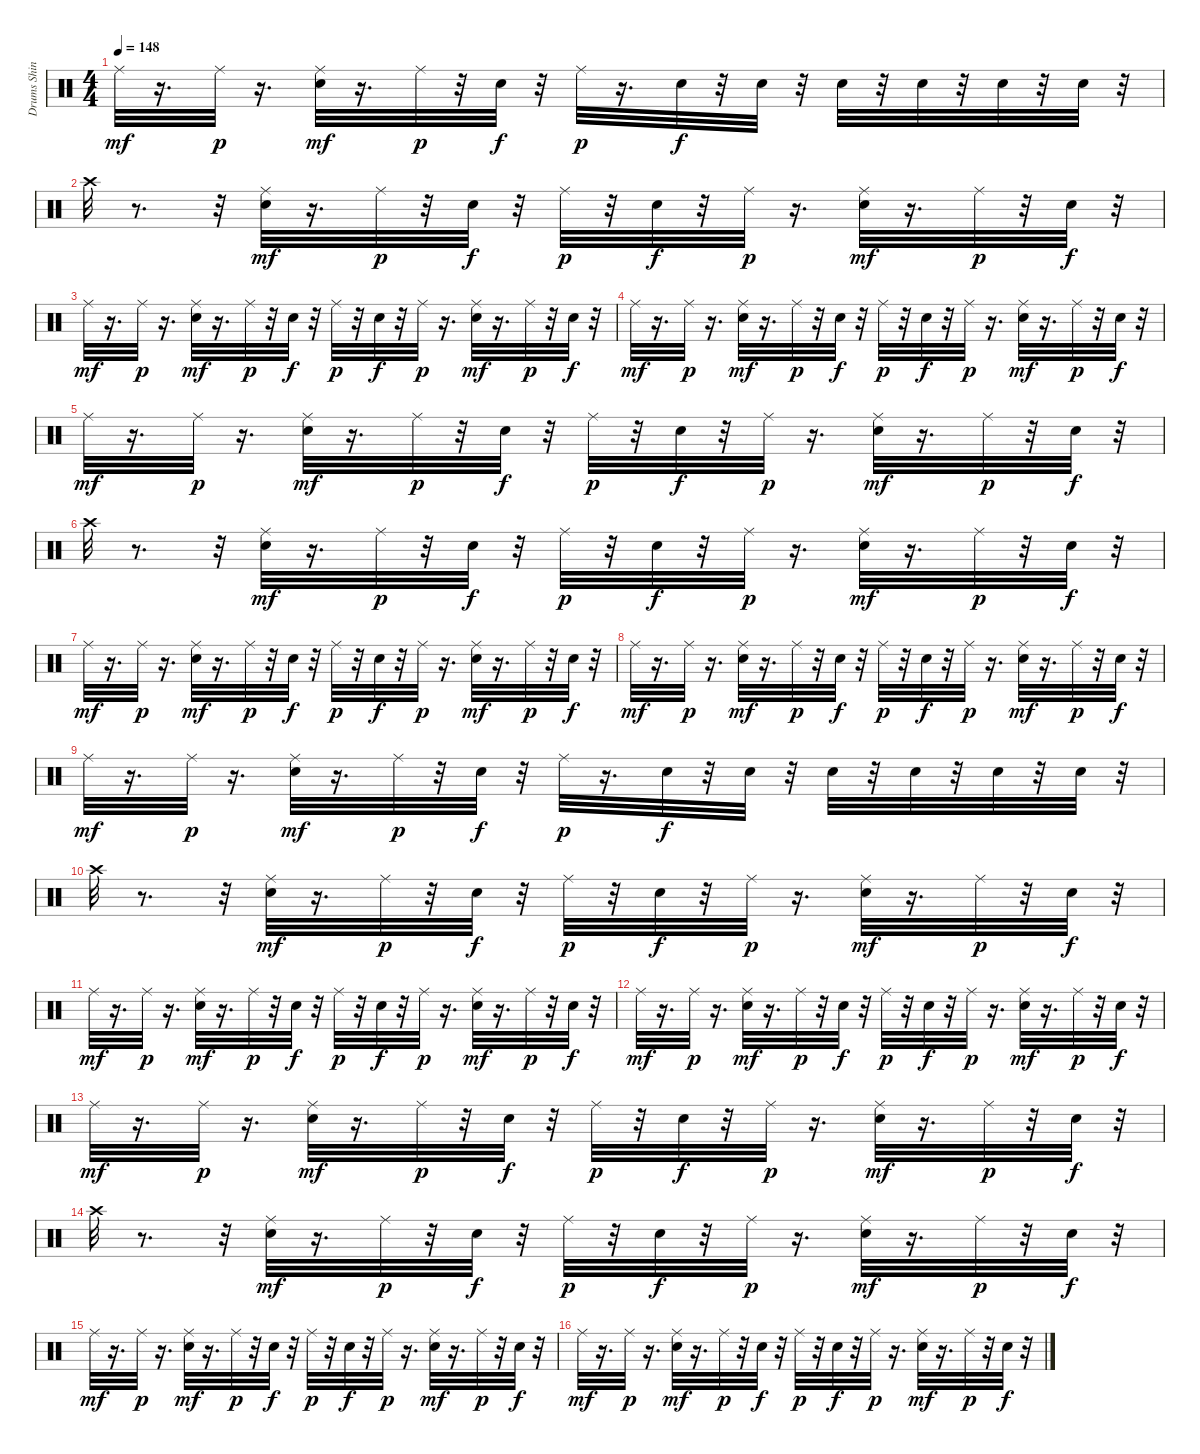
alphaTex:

\track ("Drums Shinya         " "Drums Shin") {instrument percussion}
\staff {score}
\articulation defaults
\ts (4 4)
\tempo 148
\clef neutral
\ks c "Ride (middle)".32{dy mf}
r.16{d} "Ride (middle)".32{dy p} r.16{d} ("Electric Snare (hit)" "Ride (middle)").32{dy mf} r.16{d} "Ride (middle)".32{dy p} r.32 "Electric Snare (hit)".32{dy f} r.32 "Ride (middle)".32{dy p} r.16{d} "Electric Snare (hit)".32{dy f} r.32 "Electric Snare (hit)".32 r.32 "Electric Snare (hit)".32 r.32 "Electric Snare (hit)".32 r.32 "Electric Snare (hit)".32 r.32 "Electric Snare (hit)".32 r.32 |
"Crash high (hit)".32 r.8{d} r.32 ("Electric Snare (hit)" "Ride (middle)").32{dy mf} r.16{d} "Ride (middle)".32{dy p} r.32 "Electric Snare (hit)".32{dy f} r.32 "Ride (middle)".32{dy p} r.32 "Electric Snare (hit)".32{dy f} r.32 "Ride (middle)".32{dy p} r.16{d} ("Electric Snare (hit)" "Ride (middle)").32{dy mf} r.16{d} "Ride (middle)".32{dy p} r.32 "Electric Snare (hit)".32{dy f} r.32 |
"Ride (middle)".32{dy mf} r.16{d} "Ride (middle)".32{dy p} r.16{d} ("Electric Snare (hit)" "Ride (middle)").32{dy mf} r.16{d} "Ride (middle)".32{dy p} r.32 "Electric Snare (hit)".32{dy f} r.32 "Ride (middle)".32{dy p} r.32 "Electric Snare (hit)".32{dy f} r.32 "Ride (middle)".32{dy p} r.16{d} ("Electric Snare (hit)" "Ride (middle)").32{dy mf} r.16{d} "Ride (middle)".32{dy p} r.32 "Electric Snare (hit)".32{dy f} r.32 |
"Ride (middle)".32{dy mf} r.16{d} "Ride (middle)".32{dy p} r.16{d} ("Electric Snare (hit)" "Ride (middle)").32{dy mf} r.16{d} "Ride (middle)".32{dy p} r.32 "Electric Snare (hit)".32{dy f} r.32 "Ride (middle)".32{dy p} r.32 "Electric Snare (hit)".32{dy f} r.32 "Ride (middle)".32{dy p} r.16{d} ("Electric Snare (hit)" "Ride (middle)").32{dy mf} r.16{d} "Ride (middle)".32{dy p} r.32 "Electric Snare (hit)".32{dy f} r.32 |
"Ride (middle)".32{dy mf} r.16{d} "Ride (middle)".32{dy p} r.16{d} ("Electric Snare (hit)" "Ride (middle)").32{dy mf} r.16{d} "Ride (middle)".32{dy p} r.32 "Electric Snare (hit)".32{dy f} r.32 "Ride (middle)".32{dy p} r.32 "Electric Snare (hit)".32{dy f} r.32 "Ride (middle)".32{dy p} r.16{d} ("Electric Snare (hit)" "Ride (middle)").32{dy mf} r.16{d} "Ride (middle)".32{dy p} r.32 "Electric Snare (hit)".32{dy f} r.32 |
"Crash high (hit)".32 r.8{d} r.32 ("Electric Snare (hit)" "Ride (middle)").32{dy mf} r.16{d} "Ride (middle)".32{dy p} r.32 "Electric Snare (hit)".32{dy f} r.32 "Ride (middle)".32{dy p} r.32 "Electric Snare (hit)".32{dy f} r.32 "Ride (middle)".32{dy p} r.16{d} ("Electric Snare (hit)" "Ride (middle)").32{dy mf} r.16{d} "Ride (middle)".32{dy p} r.32 "Electric Snare (hit)".32{dy f} r.32 |
"Ride (middle)".32{dy mf} r.16{d} "Ride (middle)".32{dy p} r.16{d} ("Electric Snare (hit)" "Ride (middle)").32{dy mf} r.16{d} "Ride (middle)".32{dy p} r.32 "Electric Snare (hit)".32{dy f} r.32 "Ride (middle)".32{dy p} r.32 "Electric Snare (hit)".32{dy f} r.32 "Ride (middle)".32{dy p} r.16{d} ("Electric Snare (hit)" "Ride (middle)").32{dy mf} r.16{d} "Ride (middle)".32{dy p} r.32 "Electric Snare (hit)".32{dy f} r.32 |
"Ride (middle)".32{dy mf} r.16{d} "Ride (middle)".32{dy p} r.16{d} ("Electric Snare (hit)" "Ride (middle)").32{dy mf} r.16{d} "Ride (middle)".32{dy p} r.32 "Electric Snare (hit)".32{dy f} r.32 "Ride (middle)".32{dy p} r.32 "Electric Snare (hit)".32{dy f} r.32 "Ride (middle)".32{dy p} r.16{d} ("Electric Snare (hit)" "Ride (middle)").32{dy mf} r.16{d} "Ride (middle)".32{dy p} r.32 "Electric Snare (hit)".32{dy f} r.32 |
"Ride (middle)".32{dy mf} r.16{d} "Ride (middle)".32{dy p} r.16{d} ("Electric Snare (hit)" "Ride (middle)").32{dy mf} r.16{d} "Ride (middle)".32{dy p} r.32 "Electric Snare (hit)".32{dy f} r.32 "Ride (middle)".32{dy p} r.16{d} "Electric Snare (hit)".32{dy f} r.32 "Electric Snare (hit)".32 r.32 "Electric Snare (hit)".32 r.32 "Electric Snare (hit)".32 r.32 "Electric Snare (hit)".32 r.32 "Electric Snare (hit)".32 r.32 |
"Crash high (hit)".32 r.8{d} r.32 ("Electric Snare (hit)" "Ride (middle)").32{dy mf} r.16{d} "Ride (middle)".32{dy p} r.32 "Electric Snare (hit)".32{dy f} r.32 "Ride (middle)".32{dy p} r.32 "Electric Snare (hit)".32{dy f} r.32 "Ride (middle)".32{dy p} r.16{d} ("Electric Snare (hit)" "Ride (middle)").32{dy mf} r.16{d} "Ride (middle)".32{dy p} r.32 "Electric Snare (hit)".32{dy f} r.32 |
"Ride (middle)".32{dy mf} r.16{d} "Ride (middle)".32{dy p} r.16{d} ("Electric Snare (hit)" "Ride (middle)").32{dy mf} r.16{d} "Ride (middle)".32{dy p} r.32 "Electric Snare (hit)".32{dy f} r.32 "Ride (middle)".32{dy p} r.32 "Electric Snare (hit)".32{dy f} r.32 "Ride (middle)".32{dy p} r.16{d} ("Electric Snare (hit)" "Ride (middle)").32{dy mf} r.16{d} "Ride (middle)".32{dy p} r.32 "Electric Snare (hit)".32{dy f} r.32 |
"Ride (middle)".32{dy mf} r.16{d} "Ride (middle)".32{dy p} r.16{d} ("Electric Snare (hit)" "Ride (middle)").32{dy mf} r.16{d} "Ride (middle)".32{dy p} r.32 "Electric Snare (hit)".32{dy f} r.32 "Ride (middle)".32{dy p} r.32 "Electric Snare (hit)".32{dy f} r.32 "Ride (middle)".32{dy p} r.16{d} ("Electric Snare (hit)" "Ride (middle)").32{dy mf} r.16{d} "Ride (middle)".32{dy p} r.32 "Electric Snare (hit)".32{dy f} r.32 |
"Ride (middle)".32{dy mf} r.16{d} "Ride (middle)".32{dy p} r.16{d} ("Electric Snare (hit)" "Ride (middle)").32{dy mf} r.16{d} "Ride (middle)".32{dy p} r.32 "Electric Snare (hit)".32{dy f} r.32 "Ride (middle)".32{dy p} r.32 "Electric Snare (hit)".32{dy f} r.32 "Ride (middle)".32{dy p} r.16{d} ("Electric Snare (hit)" "Ride (middle)").32{dy mf} r.16{d} "Ride (middle)".32{dy p} r.32 "Electric Snare (hit)".32{dy f} r.32 |
"Crash high (hit)".32 r.8{d} r.32 ("Electric Snare (hit)" "Ride (middle)").32{dy mf} r.16{d} "Ride (middle)".32{dy p} r.32 "Electric Snare (hit)".32{dy f} r.32 "Ride (middle)".32{dy p} r.32 "Electric Snare (hit)".32{dy f} r.32 "Ride (middle)".32{dy p} r.16{d} ("Electric Snare (hit)" "Ride (middle)").32{dy mf} r.16{d} "Ride (middle)".32{dy p} r.32 "Electric Snare (hit)".32{dy f} r.32 |
"Ride (middle)".32{dy mf} r.16{d} "Ride (middle)".32{dy p} r.16{d} ("Electric Snare (hit)" "Ride (middle)").32{dy mf} r.16{d} "Ride (middle)".32{dy p} r.32 "Electric Snare (hit)".32{dy f} r.32 "Ride (middle)".32{dy p} r.32 "Electric Snare (hit)".32{dy f} r.32 "Ride (middle)".32{dy p} r.16{d} ("Electric Snare (hit)" "Ride (middle)").32{dy mf} r.16{d} "Ride (middle)".32{dy p} r.32 "Electric Snare (hit)".32{dy f} r.32 |
"Ride (middle)".32{dy mf} r.16{d} "Ride (middle)".32{dy p} r.16{d} ("Electric Snare (hit)" "Ride (middle)").32{dy mf} r.16{d} "Ride (middle)".32{dy p} r.32 "Electric Snare (hit)".32{dy f} r.32 "Ride (middle)".32{dy p} r.32 "Electric Snare (hit)".32{dy f} r.32 "Ride (middle)".32{dy p} r.16{d} ("Electric Snare (hit)" "Ride (middle)").32{dy mf} r.16{d} "Ride (middle)".32{dy p} r.32 "Electric Snare (hit)".32{dy f} r.32
